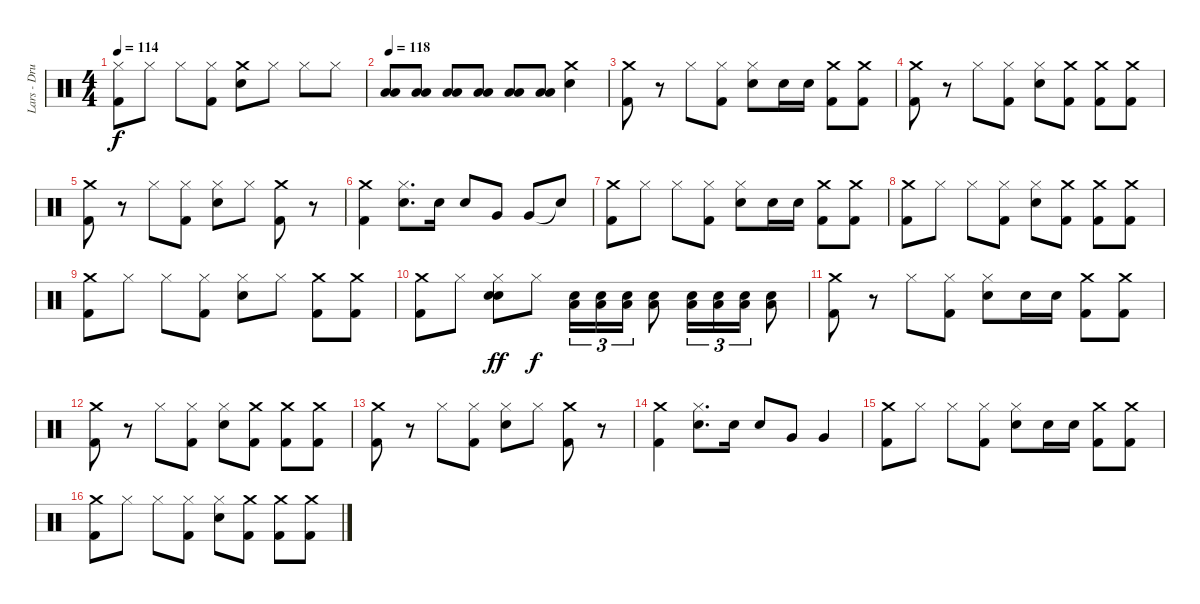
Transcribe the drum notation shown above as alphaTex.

\track ("Lars - Drums" "Lars - Dru") {instrument percussion}
\staff {score}
\articulation defaults
\ts (4 4)
\tempo 114
\clef neutral
\ks c
("Hi-Hat (closed)" "Kick (hit) 2").8{dy f} "Hi-Hat (closed)".8 "Hi-Hat (closed)".8 ("Hi-Hat (closed)" "Kick (hit) 2").8 ("Crash medium (hit)" "Snare (hit) 2").8 "Hi-Hat (closed)".8 "Hi-Hat (closed)".8 "Hi-Hat (closed)".8 |
\tempo 118
("Low Tom (hit)" "Low Floor Tom (hit)").8{volume 14} ("Low Tom (hit)" "Low Floor Tom (hit)").8 ("Low Tom (hit)" "Low Floor Tom (hit)").8 ("Low Tom (hit)" "Low Floor Tom (hit)").8 ("Low Tom (hit)" "Low Floor Tom (hit)").8 ("Low Tom (hit)" "Low Floor Tom (hit)").8 ("Crash medium (hit)" "Snare (hit) 2").4 |
("Crash medium (hit)" "Kick (hit) 2").8 r.8 "Hi-Hat (closed)".8 ("Hi-Hat (closed)" "Kick (hit) 2").8 ("Hi-Hat (closed)" "Snare (hit) 2").8 "Snare (hit) 2".16 "Snare (hit) 2".16 ("Crash medium (hit)" "Kick (hit) 2").8 ("Crash medium (hit)" "Kick (hit) 2").8 |
("Crash medium (hit)" "Kick (hit) 2").8 r.8 "Hi-Hat (closed)".8 ("Hi-Hat (closed)" "Kick (hit) 2").8 ("Hi-Hat (closed)" "Snare (hit) 2").8 ("Crash medium (hit)" "Kick (hit) 2").8 ("Crash medium (hit)" "Kick (hit) 2").8 ("Crash medium (hit)" "Kick (hit) 2").8 |
("Crash medium (hit)" "Kick (hit) 2").8 r.8 "Hi-Hat (closed)".8 ("Hi-Hat (closed)" "Kick (hit) 2").8 ("Hi-Hat (closed)" "Snare (hit) 2").8 "Hi-Hat (closed)".8 ("Crash medium (hit)" "Kick (hit) 2").8 r.8 |
("Crash medium (hit)" "Kick (hit) 2").4 ("Hi-Hat (closed)" "Snare (hit) 2").8{d} "Snare (hit) 2".16 "Snare (hit) 2".8 "Very Low Tom (hit)".8 "Very Low Tom (hit)".8 "Snare (hit)"{t}.8 |
("Crash medium (hit)" "Kick (hit) 2").8 "Hi-Hat (closed)".8 "Hi-Hat (closed)".8 ("Hi-Hat (closed)" "Kick (hit) 2").8 ("Hi-Hat (closed)" "Snare (hit) 2").8 "Snare (hit) 2".16 "Snare (hit) 2".16 ("Crash medium (hit)" "Kick (hit) 2").8 ("Crash medium (hit)" "Kick (hit) 2").8 |
("Crash medium (hit)" "Kick (hit) 2").8 "Hi-Hat (closed)".8 "Hi-Hat (closed)".8 ("Hi-Hat (closed)" "Kick (hit) 2").8 ("Hi-Hat (closed)" "Snare (hit) 2").8 ("Crash medium (hit)" "Kick (hit) 2").8 ("Crash medium (hit)" "Kick (hit) 2").8 ("Crash medium (hit)" "Kick (hit) 2").8 |
("Crash medium (hit)" "Kick (hit) 2").8 "Hi-Hat (closed)".8 "Hi-Hat (closed)".8 ("Hi-Hat (closed)" "Kick (hit) 2").8 ("Hi-Hat (closed)" "Snare (hit) 2").8 "Hi-Hat (closed)".8 ("Crash medium (hit)" "Kick (hit) 2").8 ("Crash medium (hit)" "Kick (hit) 2").8 |
("Crash medium (hit)" "Kick (hit) 2").8 "Hi-Hat (closed)".8 ("Snare (hit) 2" "Hi-Hat (closed)" "Snare (hit) 2").8{dy ff} "Hi-Hat (closed)".8{dy f} ("Snare (hit) 2" "Low Floor Tom (hit)").16{tu (3 2)} ("Snare (hit) 2" "Low Floor Tom (hit)").16{tu (3 2)} ("Snare (hit) 2" "Low Floor Tom (hit)").16{tu (3 2)} ("Snare (hit) 2" "Low Floor Tom (hit)").8 ("Snare (hit) 2" "Low Floor Tom (hit)").16{tu (3 2)} ("Snare (hit) 2" "Low Floor Tom (hit)").16{tu (3 2)} ("Snare (hit) 2" "Low Floor Tom (hit)").16{tu (3 2)} ("Snare (hit) 2" "Low Floor Tom (hit)").8 |
("Crash medium (hit)" "Kick (hit) 2").8 r.8 "Hi-Hat (closed)".8 ("Hi-Hat (closed)" "Kick (hit) 2").8 ("Hi-Hat (closed)" "Snare (hit) 2").8 "Snare (hit) 2".16 "Snare (hit) 2".16 ("Crash medium (hit)" "Kick (hit) 2").8 ("Crash medium (hit)" "Kick (hit) 2").8 |
("Crash medium (hit)" "Kick (hit) 2").8 r.8 "Hi-Hat (closed)".8 ("Hi-Hat (closed)" "Kick (hit) 2").8 ("Hi-Hat (closed)" "Snare (hit) 2").8 ("Crash medium (hit)" "Kick (hit) 2").8 ("Crash medium (hit)" "Kick (hit) 2").8 ("Crash medium (hit)" "Kick (hit) 2").8 |
("Crash medium (hit)" "Kick (hit) 2").8 r.8 "Hi-Hat (closed)".8 ("Hi-Hat (closed)" "Kick (hit) 2").8 ("Hi-Hat (closed)" "Snare (hit) 2").8 "Hi-Hat (closed)".8 ("Crash medium (hit)" "Kick (hit) 2").8 r.8 |
("Crash medium (hit)" "Kick (hit) 2").4 ("Hi-Hat (closed)" "Snare (hit) 2").8{d} "Snare (hit) 2".16 "Snare (hit) 2".8 "Very Low Tom (hit)".8 "Very Low Tom (hit)".4 |
("Crash medium (hit)" "Kick (hit) 2").8 "Hi-Hat (closed)".8 "Hi-Hat (closed)".8 ("Hi-Hat (closed)" "Kick (hit) 2").8 ("Hi-Hat (closed)" "Snare (hit) 2").8 "Snare (hit) 2".16 "Snare (hit) 2".16 ("Crash medium (hit)" "Kick (hit) 2").8 ("Crash medium (hit)" "Kick (hit) 2").8 |
("Crash medium (hit)" "Kick (hit) 2").8 "Hi-Hat (closed)".8 "Hi-Hat (closed)".8 ("Hi-Hat (closed)" "Kick (hit) 2").8 ("Hi-Hat (closed)" "Snare (hit) 2").8 ("Crash medium (hit)" "Kick (hit) 2").8 ("Crash medium (hit)" "Kick (hit) 2").8 ("Crash medium (hit)" "Kick (hit) 2").8
